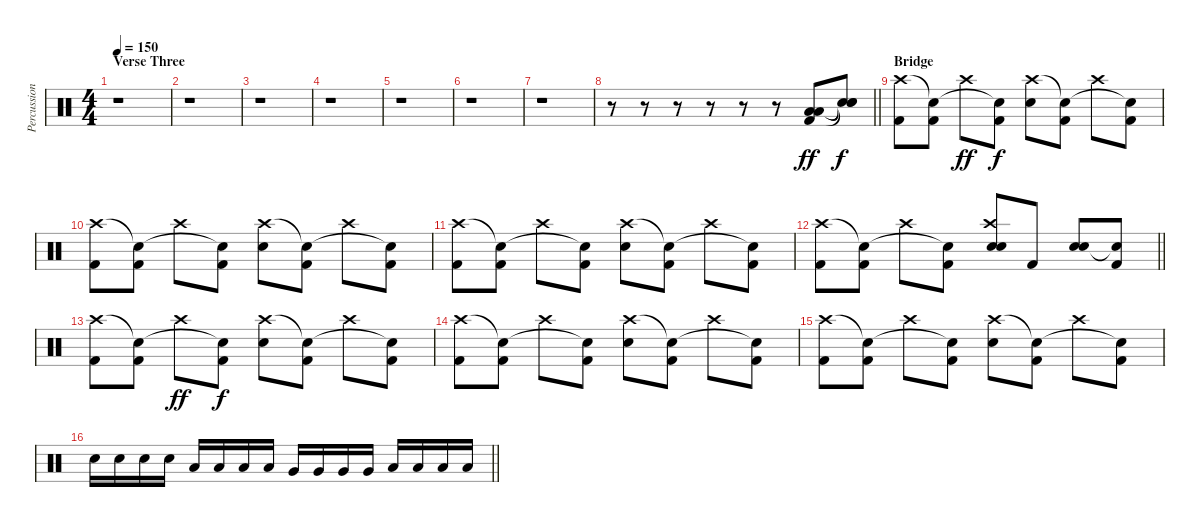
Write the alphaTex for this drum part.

\track ("Percussion" "Percussion") {instrument percussion}
\staff {score}
\articulation defaults
\ts (4 4)
\section ("" "Verse Three")
\tempo 150
\clef neutral
\ks c
r.1{dy ff} |
r.1 |
r.1 |
r.1 |
r.1 |
r.1 |
r.1 |
\barLineRight lightlight
r.8 r.8 r.8 r.8 r.8 r.8 ("Kick (hit) 2" "Low Floor Tom (hit)" "Low Tom (hit)").8 ("Snare (hit)"{t} "Snare (hit)"{t} "Snare (hit)"{t}).8{dy f} |
\section ("" "Bridge")
("Kick (hit) 2" "Crash high (hit)").8 ("Kick (hit) 2" "Snare (hit)"{t}).8 "Crash high (hit)".8{dy ff} ("Kick (hit) 2" "Snare (hit)"{t}).8{dy f} ("Snare (hit) 2" "Crash high (hit)").8 ("Kick (hit) 2" "Snare (hit)"{t}).8 "Crash high (hit)".8 ("Kick (hit) 2" "Snare (hit)"{t}).8 |
("Kick (hit) 2" "Crash high (hit)").8 ("Kick (hit) 2" "Snare (hit)"{t}).8 "Crash high (hit)".8 ("Kick (hit) 2" "Snare (hit)"{t}).8 ("Snare (hit) 2" "Crash high (hit)").8 ("Kick (hit) 2" "Snare (hit)"{t}).8 "Crash high (hit)".8 ("Kick (hit) 2" "Snare (hit)"{t}).8 |
("Kick (hit) 2" "Crash high (hit)").8 ("Kick (hit) 2" "Snare (hit)"{t}).8 "Crash high (hit)".8 ("Kick (hit) 2" "Snare (hit)"{t}).8 ("Snare (hit) 2" "Crash high (hit)").8 ("Kick (hit) 2" "Snare (hit)"{t}).8 "Crash high (hit)".8 ("Kick (hit) 2" "Snare (hit)"{t}).8 |
\barLineRight lightlight
("Kick (hit) 2" "Crash high (hit)").8 ("Kick (hit) 2" "Snare (hit)"{t}).8 "Crash high (hit)".8 ("Kick (hit) 2" "Snare (hit)"{t}).8 ("Snare (hit) 2" "Electric Snare (hit)" "Crash high (hit)").8 "Kick (hit) 2".8 ("Snare (hit) 2" "Electric Snare (hit)").8 ("Kick (hit) 2" "Snare (hit)"{t}).8 |
("Kick (hit) 2" "Crash high (hit)").8 ("Kick (hit) 2" "Snare (hit)"{t}).8 "Crash high (hit)".8{dy ff} ("Kick (hit) 2" "Snare (hit)"{t}).8{dy f} ("Snare (hit) 2" "Crash high (hit)").8 ("Kick (hit) 2" "Snare (hit)"{t}).8 "Crash high (hit)".8 ("Kick (hit) 2" "Snare (hit)"{t}).8 |
("Kick (hit) 2" "Crash high (hit)").8 ("Kick (hit) 2" "Snare (hit)"{t}).8 "Crash high (hit)".8 ("Kick (hit) 2" "Snare (hit)"{t}).8 ("Snare (hit) 2" "Crash high (hit)").8 ("Kick (hit) 2" "Snare (hit)"{t}).8 "Crash high (hit)".8 ("Kick (hit) 2" "Snare (hit)"{t}).8 |
("Kick (hit) 2" "Crash high (hit)").8 ("Kick (hit) 2" "Snare (hit)"{t}).8 "Crash high (hit)".8 ("Kick (hit) 2" "Snare (hit)"{t}).8 ("Snare (hit) 2" "Crash high (hit)").8 ("Kick (hit) 2" "Snare (hit)"{t}).8 "Crash high (hit)".8 ("Kick (hit) 2" "Snare (hit)"{t}).8 |
\barLineRight lightlight "Snare (hit) 2".16 "Snare (hit) 2".16 "Snare (hit) 2".16 "Snare (hit) 2".16 "Low Tom (hit)".16 "Low Tom (hit)".16 "Low Tom (hit)".16 "Low Tom (hit)".16 "Very Low Tom (hit)".16 "Very Low Tom (hit)".16 "Very Low Tom (hit)".16 "Very Low Tom (hit)".16 "Low Floor Tom (hit)".16 "Low Floor Tom (hit)".16 "Low Floor Tom (hit)".16 "Low Floor Tom (hit)".16
